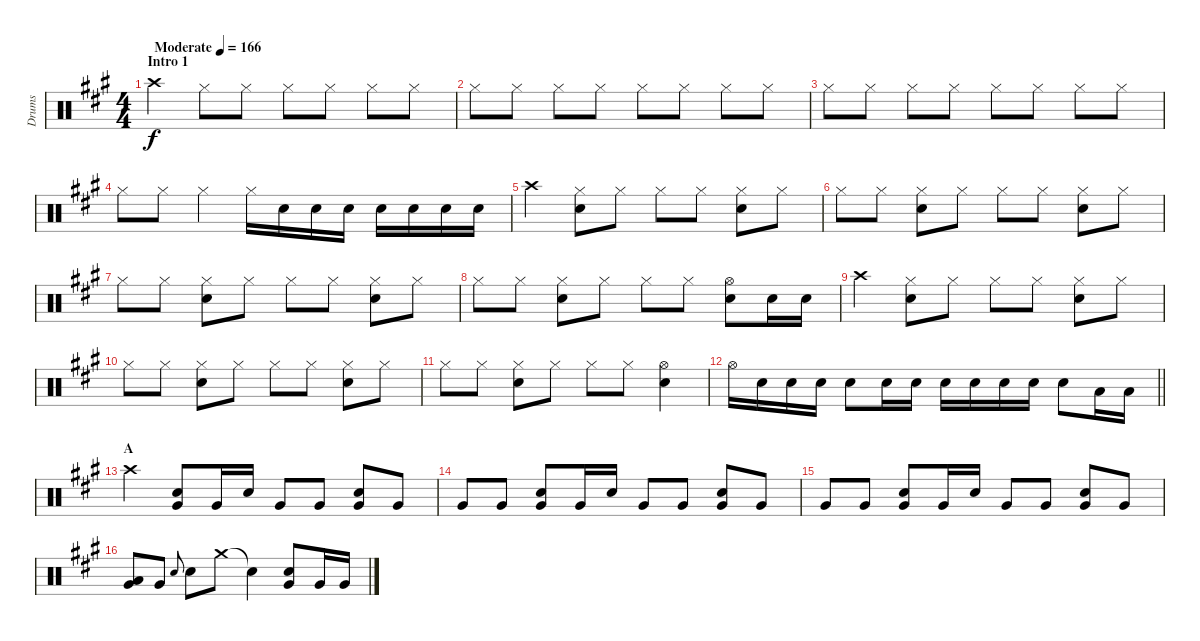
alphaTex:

\track ("Drums" "Drums") {instrument percussion}
\staff {score}
\articulation defaults
\ts (4 4)
\section ("" "Intro 1")
\tempo (166 "Moderate")
\clef neutral
\ks a "Crash high (hit)".4{dy f} "Hi-Hat (closed)".8 "Hi-Hat (closed)".8 "Hi-Hat (closed)".8 "Hi-Hat (closed)".8 "Hi-Hat (closed)".8 "Hi-Hat (closed)".8
|
"Hi-Hat (closed)".8 "Hi-Hat (closed)".8 "Hi-Hat (closed)".8 "Hi-Hat (closed)".8 "Hi-Hat (closed)".8 "Hi-Hat (closed)".8 "Hi-Hat (closed)".8 "Hi-Hat (closed)".8 |
"Hi-Hat (closed)".8 "Hi-Hat (closed)".8 "Hi-Hat (closed)".8 "Hi-Hat (closed)".8 "Hi-Hat (closed)".8 "Hi-Hat (closed)".8 "Hi-Hat (closed)".8 "Hi-Hat (closed)".8 |
"Hi-Hat (closed)".8 "Hi-Hat (closed)".8 "Hi-Hat (closed)".4 "Hi-Hat (closed)".16 "Snare (hit) 2".16 "Snare (hit) 2".16 "Snare (hit) 2".16 "Snare (hit) 2".16 "Snare (hit) 2".16 "Snare (hit) 2".16 "Snare (hit) 2".16 |
"Crash high (hit)".4 ("Hi-Hat (closed)" "Snare (hit) 2").8 "Hi-Hat (closed)".8 "Hi-Hat (closed)".8 "Hi-Hat (closed)".8 ("Hi-Hat (closed)" "Snare (hit) 2").8 "Hi-Hat (closed)".8 |
"Hi-Hat (closed)".8 "Hi-Hat (closed)".8 ("Hi-Hat (closed)" "Snare (hit) 2").8 "Hi-Hat (closed)".8 "Hi-Hat (closed)".8 "Hi-Hat (closed)".8 ("Hi-Hat (closed)" "Snare (hit) 2").8 "Hi-Hat (closed)".8 |
"Hi-Hat (closed)".8 "Hi-Hat (closed)".8 ("Hi-Hat (closed)" "Snare (hit) 2").8 "Hi-Hat (closed)".8 "Hi-Hat (closed)".8 "Hi-Hat (closed)".8 ("Hi-Hat (closed)" "Snare (hit) 2").8 "Hi-Hat (closed)".8 |
"Hi-Hat (closed)".8 "Hi-Hat (closed)".8 ("Hi-Hat (closed)" "Snare (hit) 2").8 "Hi-Hat (closed)".8 "Hi-Hat (closed)".8 "Hi-Hat (closed)".8 ("Hi-Hat (open)" "Snare (hit) 2").8 "Snare (hit) 2".16 "Snare (hit) 2".16 |
"Crash high (hit)".4 ("Hi-Hat (closed)" "Snare (hit) 2").8 "Hi-Hat (closed)".8 "Hi-Hat (closed)".8 "Hi-Hat (closed)".8 ("Hi-Hat (closed)" "Snare (hit) 2").8 "Hi-Hat (closed)".8 |
"Hi-Hat (closed)".8 "Hi-Hat (closed)".8 ("Hi-Hat (closed)" "Snare (hit) 2").8 "Hi-Hat (closed)".8 "Hi-Hat (closed)".8 "Hi-Hat (closed)".8 ("Hi-Hat (closed)" "Snare (hit) 2").8 "Hi-Hat (closed)".8 |
"Hi-Hat (closed)".8 "Hi-Hat (closed)".8 ("Hi-Hat (closed)" "Snare (hit) 2").8 "Hi-Hat (closed)".8 "Hi-Hat (closed)".8 "Hi-Hat (closed)".8 ("Hi-Hat (open)" "Snare (hit) 2").4 |
\barLineRight lightlight "Hi-Hat (open)".16 "Snare (hit) 2".16 "Snare (hit) 2".16 "Snare (hit) 2".16 "Snare (hit) 2".8 "Snare (hit) 2".16 "Snare (hit) 2".16 "Snare (hit) 2".16 "Snare (hit) 2".16 "Snare (hit) 2".16 "Snare (hit) 2".16 "Snare (hit) 2".8 "Low Tom (hit)".16 "Low Tom (hit)".16
|
\section ("" "A")
"Crash high (hit)".4 ("Very Low Tom (hit)" "Snare (hit) 2").8 "Very Low Tom (hit)".16 "Snare (hit) 2".16 "Very Low Tom (hit)".8 "Very Low Tom (hit)".8 ("Very Low Tom (hit)" "Snare (hit) 2").8 "Very Low Tom (hit)".8 |
"Very Low Tom (hit)".8 "Very Low Tom (hit)".8 ("Very Low Tom (hit)" "Snare (hit) 2").8 "Very Low Tom (hit)".16 "Snare (hit) 2".16 "Very Low Tom (hit)".8 "Very Low Tom (hit)".8 ("Very Low Tom (hit)" "Snare (hit) 2").8 "Very Low Tom (hit)".8 |
"Very Low Tom (hit)".8 "Very Low Tom (hit)".8 ("Very Low Tom (hit)" "Snare (hit) 2").8 "Very Low Tom (hit)".16 "Snare (hit) 2".16 "Very Low Tom (hit)".8 "Very Low Tom (hit)".8 ("Very Low Tom (hit)" "Snare (hit) 2").8 "Very Low Tom (hit)".8 |
("Very Low Tom (hit)" "Low Tom (hit)").8 "Very Low Tom (hit)".8 "Snare (hit) 2".8{gr onbeat} "Snare (hit) 2".8 "Crash medium (hit)".8 "Snare (hit)"{t}.4 ("Snare (hit) 2" "Very Low Tom (hit)").8 "Very Low Tom (hit)".16 "Very Low Tom (hit)".16
